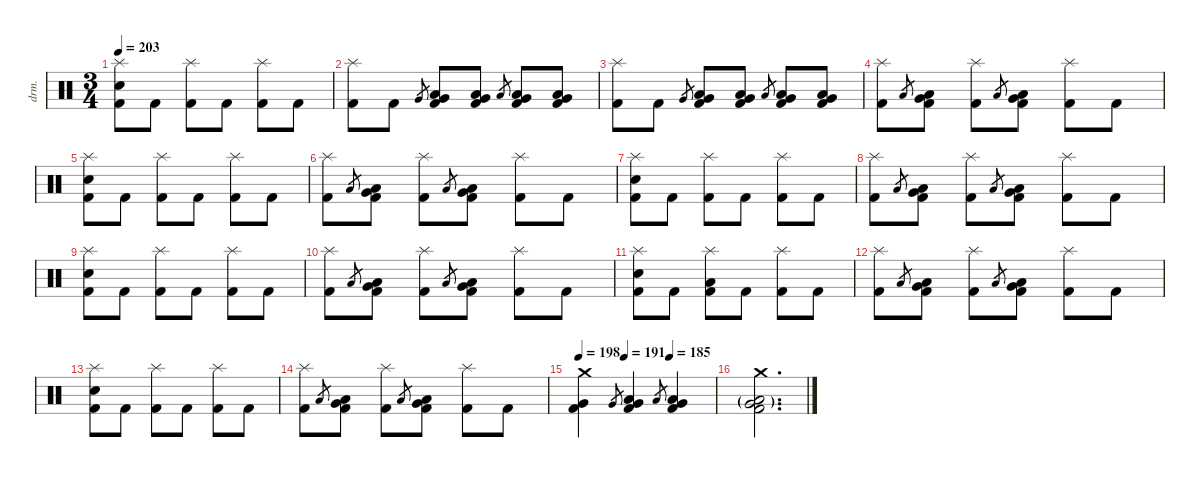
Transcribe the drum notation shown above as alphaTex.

\defaultSystemsLayout 4
\hideDynamics
\bracketExtendMode nobrackets
\otherSystemsTrackNameOrientation horizontal
\track ("Drums" "drm.") {instrument percussion}
\staff {score}
\articulation defaults
\ts (3 4)
\tempo 203
\clef neutral
\ks c
("Splash (hit)" "Snare (hit) 2" "Kick (hit) 2").8{dy f beam Down} "Kick (hit) 2".8{beam Down} ("Splash (hit)" "Kick (hit) 2").8{beam Down} "Kick (hit) 2".8{beam Down} ("Splash (hit)" "Kick (hit) 2").8{beam Down} "Kick (hit) 2".8{beam Down} |
("Splash (hit)" "Kick (hit) 2").8{beam Down} "Kick (hit) 2".8{beam Down} "Very Low Tom (hit)".8{gr dy mf beam Up} ("Very Low Tom (hit)" "Low Tom (hit)" "Kick (hit) 2").8{dy f beam Up} ("Very Low Tom (hit)" "Low Tom (hit)" "Kick (hit) 2").8{beam Up} "Low Floor Tom (hit)".8{gr dy mf beam Up} ("Low Floor Tom (hit)" "Very Low Tom (hit)" "Kick (hit) 2").8{dy f beam Up} ("Low Floor Tom (hit)" "Very Low Tom (hit)" "Kick (hit) 2").8{beam Up} |
("Splash (hit)" "Kick (hit) 2").8{beam Down} "Kick (hit) 2".8{beam Down} "Very Low Tom (hit)".8{gr dy mf beam Up} ("Very Low Tom (hit)" "Low Tom (hit)" "Kick (hit) 2").8{dy f beam Up} ("Very Low Tom (hit)" "Low Tom (hit)" "Kick (hit) 2").8{beam Up} "Low Floor Tom (hit)".8{gr dy mf beam Up} ("Low Floor Tom (hit)" "Very Low Tom (hit)" "Kick (hit) 2").8{dy f beam Up} ("Low Floor Tom (hit)" "Very Low Tom (hit)" "Kick (hit) 2").8{beam Up} |
("Splash (hit)" "Kick (hit) 2").8{beam Down} "Low Floor Tom (hit)".8{gr dy mf beam Up} ("Low Floor Tom (hit)" "Very Low Tom (hit)" "Kick (hit) 2").8{dy f beam Down} ("Splash (hit)" "Kick (hit) 2").8{beam Down} "Low Floor Tom (hit)".8{gr dy mf beam Up} ("Low Floor Tom (hit)" "Very Low Tom (hit)" "Kick (hit) 2").8{dy f beam Down} ("Splash (hit)" "Kick (hit) 2").8{beam Down} "Kick (hit) 2".8{beam Down} |
("Splash (hit)" "Snare (hit) 2" "Kick (hit) 2").8{beam Down} "Kick (hit) 2".8{beam Down} ("Splash (hit)" "Kick (hit) 2").8{beam Down} "Kick (hit) 2".8{beam Down} ("Splash (hit)" "Kick (hit) 2").8{beam Down} "Kick (hit) 2".8{beam Down} |
("Splash (hit)" "Kick (hit) 2").8{beam Down} "Low Floor Tom (hit)".8{gr dy mf beam Up} ("Low Floor Tom (hit)" "Very Low Tom (hit)" "Kick (hit) 2").8{dy f beam Down} ("Splash (hit)" "Kick (hit) 2").8{beam Down} "Low Floor Tom (hit)".8{gr dy mf beam Up} ("Low Floor Tom (hit)" "Very Low Tom (hit)" "Kick (hit) 2").8{dy f beam Down} ("Splash (hit)" "Kick (hit) 2").8{beam Down} "Kick (hit) 2".8{beam Down} |
("Splash (hit)" "Snare (hit) 2" "Kick (hit) 2").8{beam Down} "Kick (hit) 2".8{beam Down} ("Splash (hit)" "Kick (hit) 2").8{beam Down} "Kick (hit) 2".8{beam Down} ("Splash (hit)" "Kick (hit) 2").8{beam Down} "Kick (hit) 2".8{beam Down} |
("Splash (hit)" "Kick (hit) 2").8{beam Down} "Low Floor Tom (hit)".8{gr dy mf beam Up} ("Low Floor Tom (hit)" "Very Low Tom (hit)" "Kick (hit) 2").8{dy f beam Down} ("Splash (hit)" "Kick (hit) 2").8{beam Down} "Low Floor Tom (hit)".8{gr dy mf beam Up} ("Low Floor Tom (hit)" "Very Low Tom (hit)" "Kick (hit) 2").8{dy f beam Down} ("Splash (hit)" "Kick (hit) 2").8{beam Down} "Kick (hit) 2".8{beam Down} |
("Splash (hit)" "Snare (hit) 2" "Kick (hit) 2").8{beam Down} "Kick (hit) 2".8{beam Down} ("Splash (hit)" "Kick (hit) 2").8{beam Down} "Kick (hit) 2".8{beam Down} ("Splash (hit)" "Kick (hit) 2").8{beam Down} "Kick (hit) 2".8{beam Down} |
("Splash (hit)" "Kick (hit) 2").8{beam Down} "Low Floor Tom (hit)".8{gr dy mf beam Up} ("Low Floor Tom (hit)" "Very Low Tom (hit)" "Kick (hit) 2").8{dy f beam Down} ("Splash (hit)" "Kick (hit) 2").8{beam Down} "Low Floor Tom (hit)".8{gr dy mf beam Up} ("Low Floor Tom (hit)" "Very Low Tom (hit)" "Kick (hit) 2").8{dy f beam Down} ("Splash (hit)" "Kick (hit) 2").8{beam Down} "Kick (hit) 2".8{beam Down} |
("Splash (hit)" "Snare (hit) 2" "Kick (hit) 2").8{beam Down} "Kick (hit) 2".8{beam Down} ("Splash (hit)" "Low Tom (hit)" "Kick (hit) 2").8{beam Down} "Kick (hit) 2".8{beam Down} ("Splash (hit)" "Kick (hit) 2").8{beam Down} "Kick (hit) 2".8{beam Down} |
("Splash (hit)" "Kick (hit) 2").8{beam Down} "Low Floor Tom (hit)".8{gr dy mf beam Up} ("Low Floor Tom (hit)" "Very Low Tom (hit)" "Kick (hit) 2").8{dy f beam Down} ("Splash (hit)" "Kick (hit) 2").8{beam Down} "Low Floor Tom (hit)".8{gr dy mf beam Up} ("Low Floor Tom (hit)" "Very Low Tom (hit)" "Kick (hit) 2").8{dy f beam Down} ("Splash (hit)" "Kick (hit) 2").8{beam Down} "Kick (hit) 2".8{beam Down} |
("Splash (hit)" "Snare (hit) 2" "Kick (hit) 2").8{beam Down} "Kick (hit) 2".8{beam Down} ("Splash (hit)" "Kick (hit) 2").8{beam Down} "Kick (hit) 2".8{beam Down} ("Splash (hit)" "Kick (hit) 2").8{beam Down} "Kick (hit) 2".8{beam Down} |
("Splash (hit)" "Kick (hit) 2").8{beam Down} "Low Floor Tom (hit)".8{gr dy mf beam Up} ("Low Floor Tom (hit)" "Very Low Tom (hit)" "Kick (hit) 2").8{dy f beam Down} ("Splash (hit)" "Kick (hit) 2").8{beam Down} "Low Floor Tom (hit)".8{gr dy mf beam Up} ("Low Floor Tom (hit)" "Very Low Tom (hit)" "Kick (hit) 2").8{dy f beam Down} ("Splash (hit)" "Kick (hit) 2").8{beam Down} "Kick (hit) 2".8{beam Down} |
\tempo 198
\tempo (191 0.333333)
\tempo (185 0.666667)
("Crash medium (hit)" "Very Low Tom (hit)" "Kick (hit) 2").4{beam Down} "Very Low Tom (hit)".8{gr dy mf beam Up} ("Very Low Tom (hit)" "Low Tom (hit)" "Kick (hit) 2").4{dy f beam Up} "Low Floor Tom (hit)".8{gr dy mf beam Up} ("Low Floor Tom (hit)" "Very Low Tom (hit)" "Kick (hit) 2").4{dy f beam Up} |
("Crash medium (hit)" "Very Low Tom (hit)"{g} "Low Floor Tom (hit)"{g} "Kick (hit) 2").2{d beam Down}
